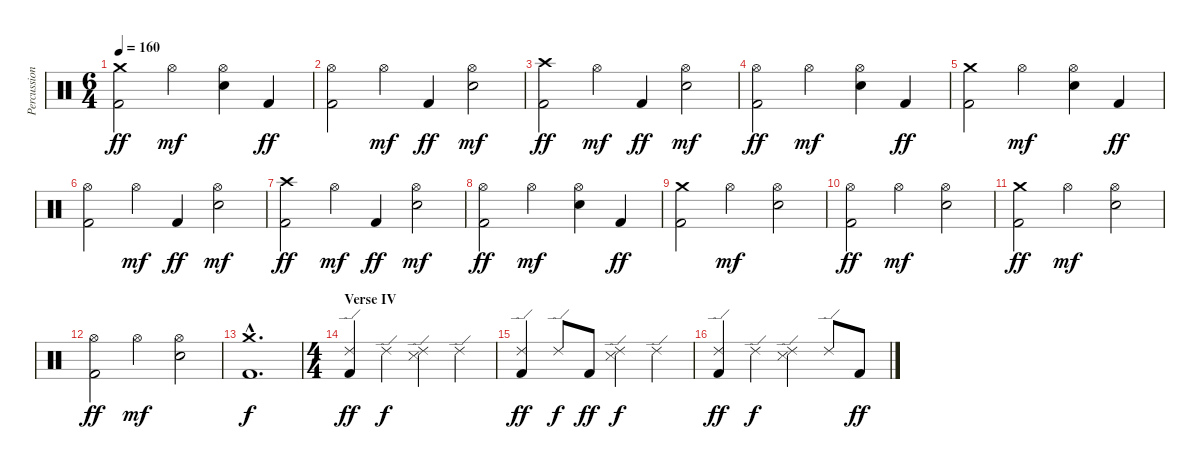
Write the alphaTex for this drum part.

\track ("Percussion" "Percussion") {instrument percussion}
\staff {score}
\articulation defaults
\ts (6 4)
\tempo 160
\clef neutral
\ks c
("Crash medium (hit)" "Kick (hit) 2").2{dy ff} "Hi-Hat (open)".2{dy mf} ("Hi-Hat (open)" "Electric Snare (hit)").4 "Kick (hit) 2".4{dy ff} |
("Hi-Hat (open)" "Kick (hit) 2").2 "Hi-Hat (open)".4{dy mf} "Kick (hit) 2".4{dy ff} ("Hi-Hat (open)" "Electric Snare (hit)").2{dy mf} |
("Crash high (hit)" "Kick (hit) 2").2{dy ff} "Hi-Hat (open)".4{dy mf} "Kick (hit) 2".4{dy ff} ("Hi-Hat (open)" "Electric Snare (hit)").2{dy mf} |
("Hi-Hat (open)" "Kick (hit) 2").2{dy ff} "Hi-Hat (open)".2{dy mf} ("Hi-Hat (open)" "Electric Snare (hit)").4 "Kick (hit) 2".4{dy ff} |
("Crash medium (hit)" "Kick (hit) 2").2 "Hi-Hat (open)".2{dy mf} ("Hi-Hat (open)" "Electric Snare (hit)").4 "Kick (hit) 2".4{dy ff} |
("Hi-Hat (open)" "Kick (hit) 2").2 "Hi-Hat (open)".4{dy mf} "Kick (hit) 2".4{dy ff} ("Hi-Hat (open)" "Electric Snare (hit)").2{dy mf} |
("Crash high (hit)" "Kick (hit) 2").2{dy ff} "Hi-Hat (open)".4{dy mf} "Kick (hit) 2".4{dy ff} ("Hi-Hat (open)" "Electric Snare (hit)").2{dy mf} |
("Hi-Hat (open)" "Kick (hit) 2").2{dy ff} "Hi-Hat (open)".2{dy mf} ("Hi-Hat (open)" "Electric Snare (hit)").4 "Kick (hit) 2".4{dy ff} |
("Crash medium (hit)" "Kick (hit) 2").2 "Hi-Hat (open)".2{dy mf} ("Hi-Hat (open)" "Electric Snare (hit)").2 |
("Hi-Hat (open)" "Kick (hit) 2").2{dy ff} "Hi-Hat (open)".2{dy mf} ("Hi-Hat (open)" "Electric Snare (hit)").2 |
("Crash medium (hit)" "Kick (hit) 2").2{dy ff} "Hi-Hat (open)".2{dy mf} ("Hi-Hat (open)" "Electric Snare (hit)").2 |
("Hi-Hat (open)" "Kick (hit) 2").2{dy ff} "Hi-Hat (open)".2{dy mf} ("Hi-Hat (open)" "Electric Snare (hit)").2 |
("Crash medium (hit)"{hac} "Kick (hit) 2"{hac}).1{d dy f} |
\ts (4 4)
\section ("" "Verse IV")
("Ride (edge) 2" "Kick (hit) 2").4{dy ff} "Ride (edge) 2".4{dy f} ("Ride (edge) 2" "Snare (side stick) 3").4 "Ride (edge) 2".4 |
("Ride (edge) 2" "Kick (hit) 2").4{dy ff} "Ride (edge) 2".8{dy f} "Kick (hit) 2".8{dy ff} ("Ride (edge) 2" "Snare (side stick) 3").4{dy f} "Ride (edge) 2".4 |
("Ride (edge) 2" "Kick (hit) 2").4{dy ff} "Ride (edge) 2".4{dy f} ("Ride (edge) 2" "Snare (side stick) 3").4 "Ride (edge) 2".8 "Kick (hit) 2".8{dy ff}
